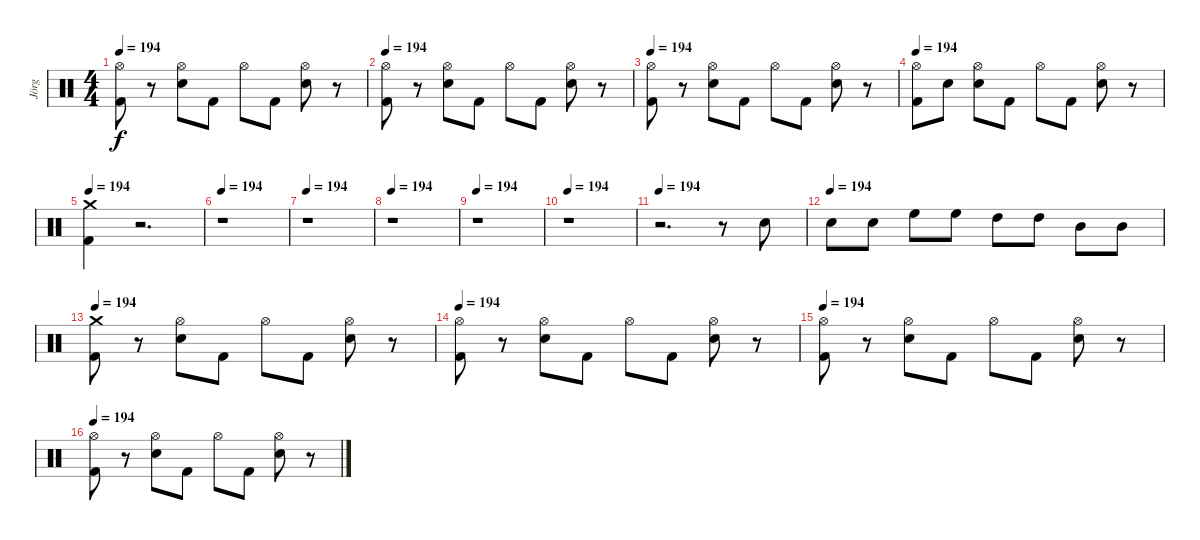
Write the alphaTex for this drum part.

\track ("Jörg" "Jörg") {instrument percussion}
\staff {score}
\articulation defaults
\ts (4 4)
\tempo 194
\clef neutral
\ks c
("Hi-Hat (open)" "Kick (hit) 2").8{dy f} r.8 ("Snare (hit) 2" "Hi-Hat (open)").8 "Kick (hit) 2".8 "Hi-Hat (open)".8 "Kick (hit) 2".8 ("Snare (hit) 2" "Hi-Hat (open)").8 r.8 |
\tempo 194
("Hi-Hat (open)" "Kick (hit) 2").8 r.8 ("Snare (hit) 2" "Hi-Hat (open)").8 "Kick (hit) 2".8 "Hi-Hat (open)".8 "Kick (hit) 2".8 ("Snare (hit) 2" "Hi-Hat (open)").8 r.8 |
\tempo 194
("Hi-Hat (open)" "Kick (hit) 2").8 r.8 ("Snare (hit) 2" "Hi-Hat (open)").8 "Kick (hit) 2".8 "Hi-Hat (open)".8 "Kick (hit) 2".8 ("Snare (hit) 2" "Hi-Hat (open)").8 r.8 |
\tempo 194
("Hi-Hat (open)" "Kick (hit) 2").8 "Snare (hit) 2".8 ("Snare (hit) 2" "Hi-Hat (open)").8 "Kick (hit) 2".8 "Hi-Hat (open)".8 "Kick (hit) 2".8 ("Snare (hit) 2" "Hi-Hat (open)").8 r.8 |
\tempo 194
("Kick (hit) 2" "Crash medium (hit)").4 r.2{d} |
\tempo 194
r.1 |
\tempo 194
r.1 |
\tempo 194
r.1 |
\tempo 194
r.1 |
\tempo 194
r.1 |
\tempo 194
r.2{d} r.8 "Snare (hit) 2".8 |
\tempo (194)
"Snare (hit) 2".8 "Snare (hit) 2".8 "High Floor Tom (hit)".8 "High Floor Tom (hit)".8 "High Tom (hit)".8 "High Tom (hit)".8 "Mid Tom (hit)".8 "Mid Tom (hit)".8 |
\tempo 194
("Crash medium (hit)" "Kick (hit) 2").8 r.8 ("Snare (hit) 2" "Hi-Hat (open)").8 "Kick (hit) 2".8 "Hi-Hat (open)".8 "Kick (hit) 2".8 ("Snare (hit) 2" "Hi-Hat (open)").8 r.8 |
\tempo 194
("Hi-Hat (open)" "Kick (hit) 2").8 r.8 ("Snare (hit) 2" "Hi-Hat (open)").8 "Kick (hit) 2".8 "Hi-Hat (open)".8 "Kick (hit) 2".8 ("Snare (hit) 2" "Hi-Hat (open)").8 r.8 |
\tempo 194
("Hi-Hat (open)" "Kick (hit) 2").8 r.8 ("Snare (hit) 2" "Hi-Hat (open)").8 "Kick (hit) 2".8 "Hi-Hat (open)".8 "Kick (hit) 2".8 ("Snare (hit) 2" "Hi-Hat (open)").8 r.8 |
\tempo 194
("Hi-Hat (open)" "Kick (hit) 2").8 r.8 ("Snare (hit) 2" "Hi-Hat (open)").8 "Kick (hit) 2".8 "Hi-Hat (open)".8 "Kick (hit) 2".8 ("Snare (hit) 2" "Hi-Hat (open)").8 r.8
